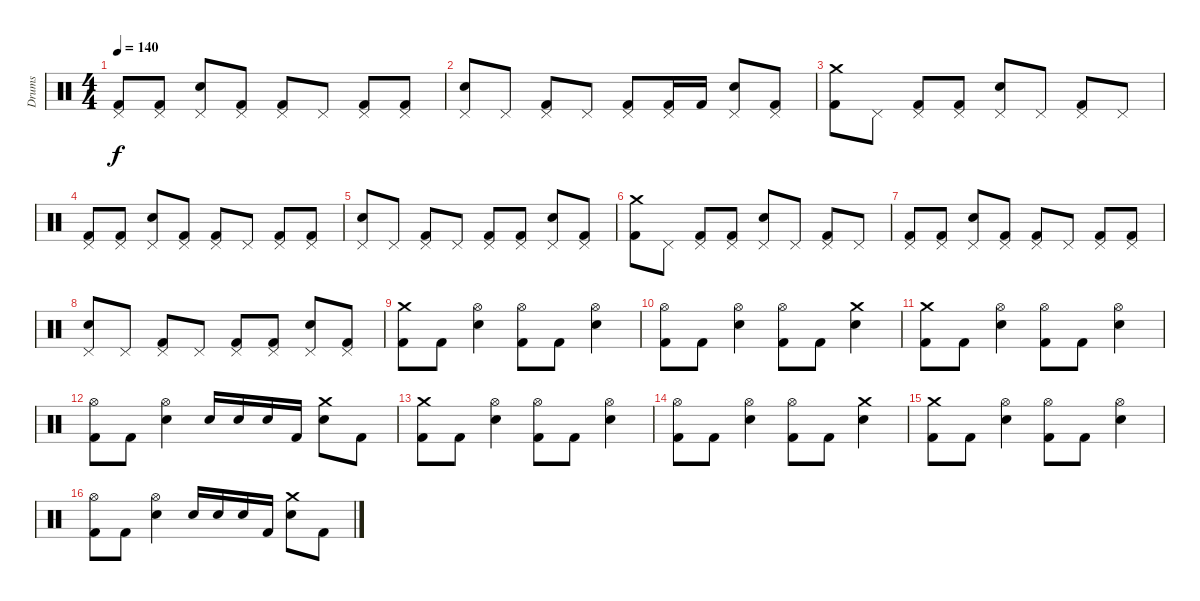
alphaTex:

\track ("Drums" "Drums") {instrument percussion}
\staff {score}
\articulation defaults
\ts (4 4)
\tempo 140
\clef neutral
\ks c
("Pedal Hi-Hat (hit)" "Kick (hit) 2").8{dy f} ("Pedal Hi-Hat (hit)" "Kick (hit) 2").8 ("Pedal Hi-Hat (hit)" "Electric Snare (hit)").8 ("Pedal Hi-Hat (hit)" "Kick (hit) 2").8 ("Pedal Hi-Hat (hit)" "Kick (hit) 2").8 "Pedal Hi-Hat (hit)".8 ("Pedal Hi-Hat (hit)" "Kick (hit) 2").8 ("Pedal Hi-Hat (hit)" "Kick (hit) 2").8 |
("Pedal Hi-Hat (hit)" "Electric Snare (hit)").8 "Pedal Hi-Hat (hit)".8 ("Pedal Hi-Hat (hit)" "Kick (hit) 2").8 "Pedal Hi-Hat (hit)".8 ("Pedal Hi-Hat (hit)" "Kick (hit) 2").8 ("Pedal Hi-Hat (hit)" "Kick (hit) 2").16 "Kick (hit) 2".16 ("Pedal Hi-Hat (hit)" "Electric Snare (hit)").8 ("Pedal Hi-Hat (hit)" "Kick (hit) 2").8 |
("Crash medium (hit)" "Kick (hit) 2").8 "Pedal Hi-Hat (hit)".8 ("Pedal Hi-Hat (hit)" "Kick (hit) 2").8 ("Pedal Hi-Hat (hit)" "Kick (hit) 2").8 ("Pedal Hi-Hat (hit)" "Electric Snare (hit)").8 "Pedal Hi-Hat (hit)".8 ("Pedal Hi-Hat (hit)" "Kick (hit) 2").8 "Pedal Hi-Hat (hit)".8 |
("Pedal Hi-Hat (hit)" "Kick (hit) 2").8 ("Pedal Hi-Hat (hit)" "Kick (hit) 2").8 ("Pedal Hi-Hat (hit)" "Electric Snare (hit)").8 ("Pedal Hi-Hat (hit)" "Kick (hit) 2").8 ("Pedal Hi-Hat (hit)" "Kick (hit) 2").8 "Pedal Hi-Hat (hit)".8 ("Pedal Hi-Hat (hit)" "Kick (hit) 2").8 ("Pedal Hi-Hat (hit)" "Kick (hit) 2").8 |
("Pedal Hi-Hat (hit)" "Electric Snare (hit)").8 "Pedal Hi-Hat (hit)".8 ("Pedal Hi-Hat (hit)" "Kick (hit) 2").8 "Pedal Hi-Hat (hit)".8 ("Pedal Hi-Hat (hit)" "Kick (hit) 2").8 ("Pedal Hi-Hat (hit)" "Kick (hit) 2").8 ("Pedal Hi-Hat (hit)" "Electric Snare (hit)").8 ("Pedal Hi-Hat (hit)" "Kick (hit) 2").8 |
("Crash medium (hit)" "Kick (hit) 2").8 "Pedal Hi-Hat (hit)".8 ("Pedal Hi-Hat (hit)" "Kick (hit) 2").8 ("Pedal Hi-Hat (hit)" "Kick (hit) 2").8 ("Pedal Hi-Hat (hit)" "Electric Snare (hit)").8 "Pedal Hi-Hat (hit)".8 ("Pedal Hi-Hat (hit)" "Kick (hit) 2").8 "Pedal Hi-Hat (hit)".8 |
("Pedal Hi-Hat (hit)" "Kick (hit) 2").8 ("Pedal Hi-Hat (hit)" "Kick (hit) 2").8 ("Pedal Hi-Hat (hit)" "Electric Snare (hit)").8 ("Pedal Hi-Hat (hit)" "Kick (hit) 2").8 ("Pedal Hi-Hat (hit)" "Kick (hit) 2").8 "Pedal Hi-Hat (hit)".8 ("Pedal Hi-Hat (hit)" "Kick (hit) 2").8 ("Pedal Hi-Hat (hit)" "Kick (hit) 2").8 |
("Pedal Hi-Hat (hit)" "Electric Snare (hit)").8 "Pedal Hi-Hat (hit)".8 ("Pedal Hi-Hat (hit)" "Kick (hit) 2").8 "Pedal Hi-Hat (hit)".8 ("Pedal Hi-Hat (hit)" "Kick (hit) 2").8 ("Pedal Hi-Hat (hit)" "Kick (hit) 2").8 ("Pedal Hi-Hat (hit)" "Electric Snare (hit)").8 ("Pedal Hi-Hat (hit)" "Kick (hit) 2").8 |
("Crash medium (hit)" "Kick (hit) 2").8 "Kick (hit) 2".8 ("Hi-Hat (open)" "Electric Snare (hit)").4 ("Hi-Hat (open)" "Kick (hit) 2").8 "Kick (hit) 2".8 ("Hi-Hat (open)" "Electric Snare (hit)").4 |
("Hi-Hat (open)" "Kick (hit) 2").8 "Kick (hit) 2".8 ("Hi-Hat (open)" "Electric Snare (hit)").4 ("Hi-Hat (open)" "Kick (hit) 2").8 "Kick (hit) 2".8 ("Crash medium (hit)" "Electric Snare (hit)").4 |
("Crash medium (hit)" "Kick (hit) 2").8 "Kick (hit) 2".8 ("Hi-Hat (open)" "Electric Snare (hit)").4 ("Hi-Hat (open)" "Kick (hit) 2").8 "Kick (hit) 2".8 ("Hi-Hat (open)" "Electric Snare (hit)").4 |
("Hi-Hat (open)" "Kick (hit) 2").8 "Kick (hit) 2".8 ("Hi-Hat (open)" "Electric Snare (hit)").4 "Electric Snare (hit)".16 "Electric Snare (hit)".16 "Electric Snare (hit)".16 "Kick (hit) 2".16 ("Crash medium (hit)" "Electric Snare (hit)").8 "Kick (hit) 2".8 |
("Crash medium (hit)" "Kick (hit) 2").8 "Kick (hit) 2".8 ("Hi-Hat (open)" "Electric Snare (hit)").4 ("Hi-Hat (open)" "Kick (hit) 2").8 "Kick (hit) 2".8 ("Hi-Hat (open)" "Electric Snare (hit)").4 |
("Hi-Hat (open)" "Kick (hit) 2").8 "Kick (hit) 2".8 ("Hi-Hat (open)" "Electric Snare (hit)").4 ("Hi-Hat (open)" "Kick (hit) 2").8 "Kick (hit) 2".8 ("Crash medium (hit)" "Electric Snare (hit)").4 |
("Crash medium (hit)" "Kick (hit) 2").8 "Kick (hit) 2".8 ("Hi-Hat (open)" "Electric Snare (hit)").4 ("Hi-Hat (open)" "Kick (hit) 2").8 "Kick (hit) 2".8 ("Hi-Hat (open)" "Electric Snare (hit)").4 |
("Hi-Hat (open)" "Kick (hit) 2").8 "Kick (hit) 2".8 ("Hi-Hat (open)" "Electric Snare (hit)").4 "Electric Snare (hit)".16 "Electric Snare (hit)".16 "Electric Snare (hit)".16 "Kick (hit) 2".16 ("Crash medium (hit)" "Electric Snare (hit)").8 "Kick (hit) 2".8
